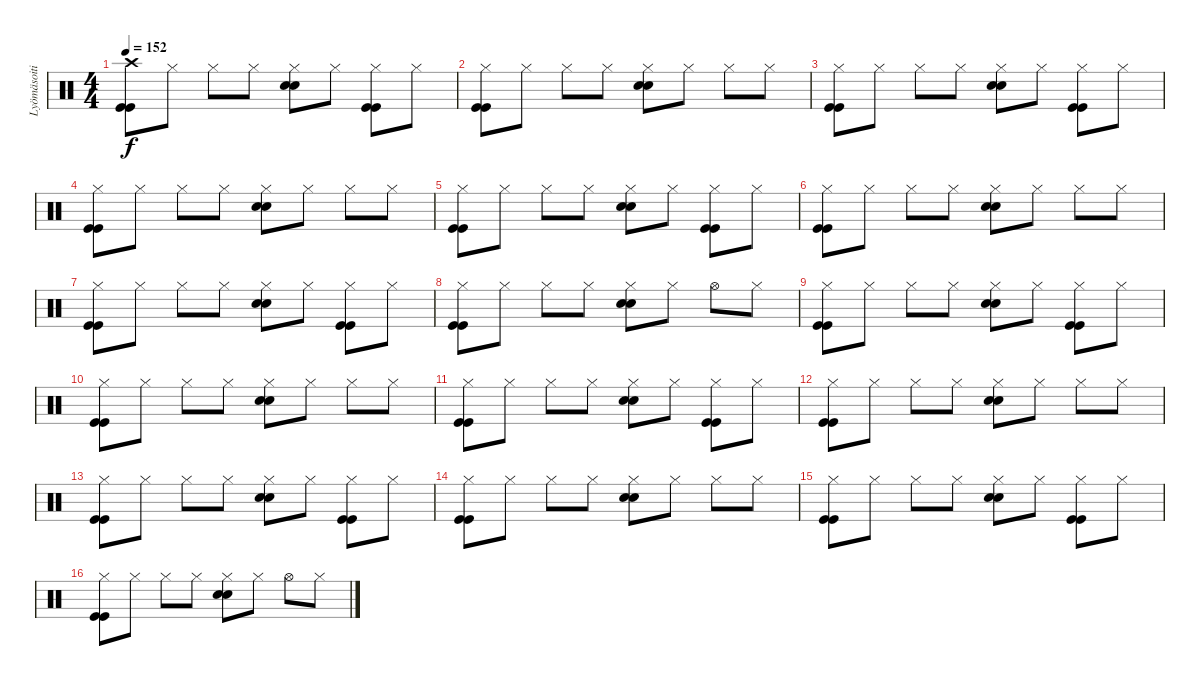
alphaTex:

\track ("Lyömäsoitin" "Lyömäsoiti") {instrument percussion}
\staff {score}
\articulation defaults
\ts (4 4)
\tempo 152
\clef neutral
\ks c
("Crash high (hit)" "Kick (hit)" "Kick (hit)").8{dy f} "Hi-Hat (closed)".8 "Hi-Hat (closed)".8 "Hi-Hat (closed)".8 ("Hi-Hat (closed)" "Snare (hit) 2" "Snare (hit) 2").8 "Hi-Hat (closed)".8 ("Hi-Hat (closed)" "Kick (hit)" "Kick (hit)").8 "Hi-Hat (closed)".8 |
("Hi-Hat (closed)" "Kick (hit)" "Kick (hit)").8 "Hi-Hat (closed)".8 "Hi-Hat (closed)".8 "Hi-Hat (closed)".8 ("Hi-Hat (closed)" "Snare (hit) 2" "Snare (hit) 2").8 "Hi-Hat (closed)".8 "Hi-Hat (closed)".8 "Hi-Hat (closed)".8 |
("Hi-Hat (closed)" "Kick (hit)" "Kick (hit)").8 "Hi-Hat (closed)".8 "Hi-Hat (closed)".8 "Hi-Hat (closed)".8 ("Hi-Hat (closed)" "Snare (hit) 2" "Snare (hit) 2").8 "Hi-Hat (closed)".8 ("Hi-Hat (closed)" "Kick (hit)" "Kick (hit)").8 "Hi-Hat (closed)".8 |
("Hi-Hat (closed)" "Kick (hit)" "Kick (hit)").8 "Hi-Hat (closed)".8 "Hi-Hat (closed)".8 "Hi-Hat (closed)".8 ("Hi-Hat (closed)" "Snare (hit) 2" "Snare (hit) 2").8 "Hi-Hat (closed)".8 "Hi-Hat (closed)".8 "Hi-Hat (closed)".8 |
("Hi-Hat (closed)" "Kick (hit)" "Kick (hit)").8 "Hi-Hat (closed)".8 "Hi-Hat (closed)".8 "Hi-Hat (closed)".8 ("Hi-Hat (closed)" "Snare (hit) 2" "Snare (hit) 2").8 "Hi-Hat (closed)".8 ("Hi-Hat (closed)" "Kick (hit)" "Kick (hit)").8 "Hi-Hat (closed)".8 |
("Hi-Hat (closed)" "Kick (hit)" "Kick (hit)").8 "Hi-Hat (closed)".8 "Hi-Hat (closed)".8 "Hi-Hat (closed)".8 ("Hi-Hat (closed)" "Snare (hit) 2" "Snare (hit) 2").8 "Hi-Hat (closed)".8 "Hi-Hat (closed)".8 "Hi-Hat (closed)".8 |
("Hi-Hat (closed)" "Kick (hit)" "Kick (hit)").8 "Hi-Hat (closed)".8 "Hi-Hat (closed)".8 "Hi-Hat (closed)".8 ("Hi-Hat (closed)" "Snare (hit) 2" "Snare (hit) 2").8 "Hi-Hat (closed)".8 ("Hi-Hat (closed)" "Kick (hit)" "Kick (hit)").8 "Hi-Hat (closed)".8 |
("Hi-Hat (closed)" "Kick (hit)" "Kick (hit)").8 "Hi-Hat (closed)".8 "Hi-Hat (closed)".8 "Hi-Hat (closed)".8 ("Hi-Hat (closed)" "Snare (hit) 2" "Snare (hit) 2").8 "Hi-Hat (closed)".8 "Hi-Hat (open)".8 "Hi-Hat (closed)".8 |
("Hi-Hat (closed)" "Kick (hit)" "Kick (hit)").8 "Hi-Hat (closed)".8 "Hi-Hat (closed)".8 "Hi-Hat (closed)".8 ("Hi-Hat (closed)" "Snare (hit) 2" "Snare (hit) 2").8 "Hi-Hat (closed)".8 ("Hi-Hat (closed)" "Kick (hit)" "Kick (hit)").8 "Hi-Hat (closed)".8 |
("Hi-Hat (closed)" "Kick (hit)" "Kick (hit)").8 "Hi-Hat (closed)".8 "Hi-Hat (closed)".8 "Hi-Hat (closed)".8 ("Hi-Hat (closed)" "Snare (hit) 2" "Snare (hit) 2").8 "Hi-Hat (closed)".8 "Hi-Hat (closed)".8 "Hi-Hat (closed)".8 |
("Hi-Hat (closed)" "Kick (hit)" "Kick (hit)").8 "Hi-Hat (closed)".8 "Hi-Hat (closed)".8 "Hi-Hat (closed)".8 ("Hi-Hat (closed)" "Snare (hit) 2" "Snare (hit) 2").8 "Hi-Hat (closed)".8 ("Hi-Hat (closed)" "Kick (hit)" "Kick (hit)").8 "Hi-Hat (closed)".8 |
("Hi-Hat (closed)" "Kick (hit)" "Kick (hit)").8 "Hi-Hat (closed)".8 "Hi-Hat (closed)".8 "Hi-Hat (closed)".8 ("Hi-Hat (closed)" "Snare (hit) 2" "Snare (hit) 2").8 "Hi-Hat (closed)".8 "Hi-Hat (closed)".8 "Hi-Hat (closed)".8 |
("Hi-Hat (closed)" "Kick (hit)" "Kick (hit)").8 "Hi-Hat (closed)".8 "Hi-Hat (closed)".8 "Hi-Hat (closed)".8 ("Hi-Hat (closed)" "Snare (hit) 2" "Snare (hit) 2").8 "Hi-Hat (closed)".8 ("Hi-Hat (closed)" "Kick (hit)" "Kick (hit)").8 "Hi-Hat (closed)".8 |
("Hi-Hat (closed)" "Kick (hit)" "Kick (hit)").8 "Hi-Hat (closed)".8 "Hi-Hat (closed)".8 "Hi-Hat (closed)".8 ("Hi-Hat (closed)" "Snare (hit) 2" "Snare (hit) 2").8 "Hi-Hat (closed)".8 "Hi-Hat (closed)".8 "Hi-Hat (closed)".8 |
("Hi-Hat (closed)" "Kick (hit)" "Kick (hit)").8 "Hi-Hat (closed)".8 "Hi-Hat (closed)".8 "Hi-Hat (closed)".8 ("Hi-Hat (closed)" "Snare (hit) 2" "Snare (hit) 2").8 "Hi-Hat (closed)".8 ("Hi-Hat (closed)" "Kick (hit)" "Kick (hit)").8 "Hi-Hat (closed)".8 |
("Hi-Hat (closed)" "Kick (hit)" "Kick (hit)").8 "Hi-Hat (closed)".8 "Hi-Hat (closed)".8 "Hi-Hat (closed)".8 ("Hi-Hat (closed)" "Snare (hit) 2" "Snare (hit) 2").8 "Hi-Hat (closed)".8 "Hi-Hat (open)".8 "Hi-Hat (closed)".8
